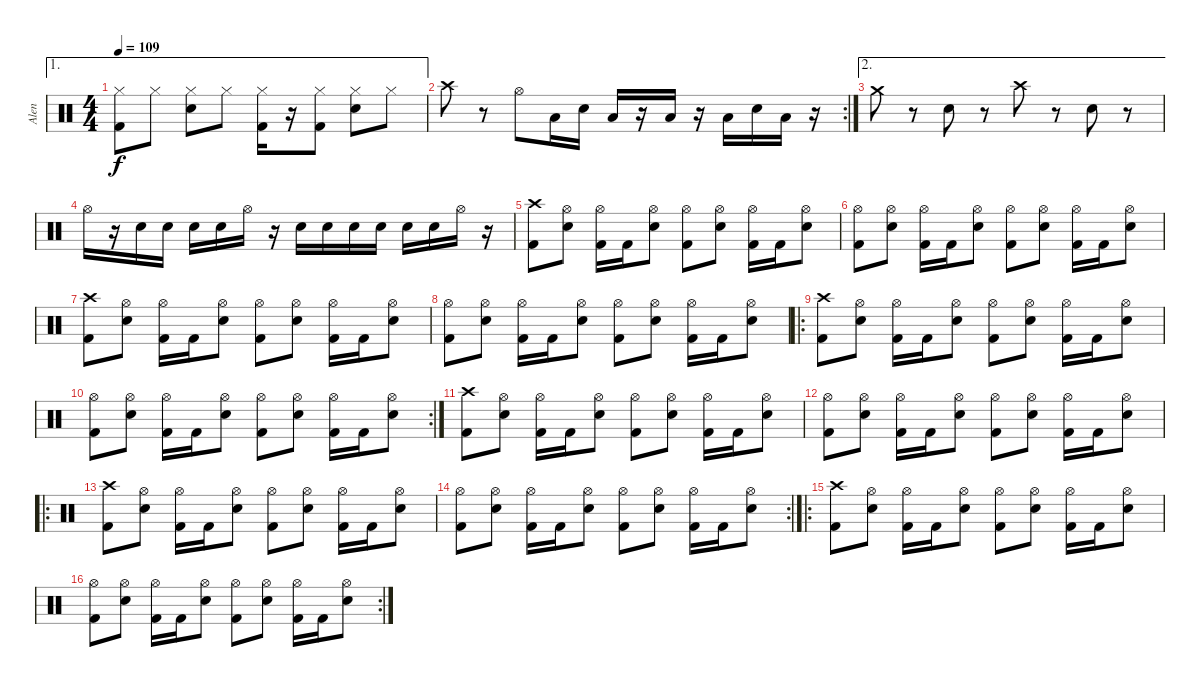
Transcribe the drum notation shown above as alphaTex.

\track ("Alen" "Alen") {instrument percussion}
\staff {score}
\articulation defaults
\ae 1
\ts (4 4)
\tempo 109
\clef neutral
\ks c
("Hi-Hat (closed)" "Kick (hit) 2").8{dy f} "Hi-Hat (closed)".8 ("Hi-Hat (closed)" "Electric Snare (hit)").8 "Hi-Hat (closed)".8 ("Hi-Hat (closed)" "Kick (hit) 2").16 r.16 ("Hi-Hat (closed)" "Kick (hit) 2").8 ("Hi-Hat (closed)" "Electric Snare (hit)").8 "Hi-Hat (closed)".8 |
\rc 2 "Crash high (hit)".8
r.8 "Hi-Hat (open)".8 "Low Floor Tom (hit)".16 "Electric Snare (hit)".16 "Low Floor Tom (hit)".16 r.16 "Low Floor Tom (hit)".16 r.16 "Low Floor Tom (hit)".16 "Electric Snare (hit)".16 "Low Floor Tom (hit)".16 r.16 |
\ae 2 "Crash medium (hit)".8
r.8 "Electric Snare (hit)".8 r.8 "Crash high (hit)".8 r.8 "Electric Snare (hit)".8 r.8 |
"Hi-Hat (open)".16 r.16 "Electric Snare (hit)".16 "Electric Snare (hit)".16 "Electric Snare (hit)".16 "Electric Snare (hit)".16 "Hi-Hat (open)".16 r.16 "Electric Snare (hit)".16 "Electric Snare (hit)".16 "Electric Snare (hit)".16 "Electric Snare (hit)".16 "Electric Snare (hit)".16 "Electric Snare (hit)".16 "Hi-Hat (open)".16 r.16 |
("Crash high (hit)" "Kick (hit) 2").8 ("Hi-Hat (open)" "Electric Snare (hit)").8 ("Hi-Hat (open)" "Kick (hit) 2").16 "Kick (hit) 2".16 ("Hi-Hat (open)" "Electric Snare (hit)").8 ("Hi-Hat (open)" "Kick (hit) 2").8 ("Hi-Hat (open)" "Electric Snare (hit)").8 ("Hi-Hat (open)" "Kick (hit) 2").16 "Kick (hit) 2".16 ("Hi-Hat (open)" "Electric Snare (hit)").8 |
("Hi-Hat (open)" "Kick (hit) 2").8 ("Hi-Hat (open)" "Electric Snare (hit)").8 ("Hi-Hat (open)" "Kick (hit) 2").16 "Kick (hit) 2".16 ("Hi-Hat (open)" "Electric Snare (hit)").8 ("Hi-Hat (open)" "Kick (hit) 2").8 ("Hi-Hat (open)" "Electric Snare (hit)").8 ("Hi-Hat (open)" "Kick (hit) 2").16 "Kick (hit) 2".16 ("Hi-Hat (open)" "Electric Snare (hit)").8 |
("Crash high (hit)" "Kick (hit) 2").8 ("Hi-Hat (open)" "Electric Snare (hit)").8 ("Hi-Hat (open)" "Kick (hit) 2").16 "Kick (hit) 2".16 ("Hi-Hat (open)" "Electric Snare (hit)").8 ("Hi-Hat (open)" "Kick (hit) 2").8 ("Hi-Hat (open)" "Electric Snare (hit)").8 ("Hi-Hat (open)" "Kick (hit) 2").16 "Kick (hit) 2".16 ("Hi-Hat (open)" "Electric Snare (hit)").8 |
("Hi-Hat (open)" "Kick (hit) 2").8 ("Hi-Hat (open)" "Electric Snare (hit)").8 ("Hi-Hat (open)" "Kick (hit) 2").16 "Kick (hit) 2".16 ("Hi-Hat (open)" "Electric Snare (hit)").8 ("Hi-Hat (open)" "Kick (hit) 2").8 ("Hi-Hat (open)" "Electric Snare (hit)").8 ("Hi-Hat (open)" "Kick (hit) 2").16 "Kick (hit) 2".16 ("Hi-Hat (open)" "Electric Snare (hit)").8 |
\ro
("Crash high (hit)" "Kick (hit) 2").8 ("Hi-Hat (open)" "Electric Snare (hit)").8 ("Hi-Hat (open)" "Kick (hit) 2").16 "Kick (hit) 2".16 ("Hi-Hat (open)" "Electric Snare (hit)").8 ("Hi-Hat (open)" "Kick (hit) 2").8 ("Hi-Hat (open)" "Electric Snare (hit)").8 ("Hi-Hat (open)" "Kick (hit) 2").16 "Kick (hit) 2".16 ("Hi-Hat (open)" "Electric Snare (hit)").8 |
\rc 2
("Hi-Hat (open)" "Kick (hit) 2").8 ("Hi-Hat (open)" "Electric Snare (hit)").8 ("Hi-Hat (open)" "Kick (hit) 2").16 "Kick (hit) 2".16 ("Hi-Hat (open)" "Electric Snare (hit)").8 ("Hi-Hat (open)" "Kick (hit) 2").8 ("Hi-Hat (open)" "Electric Snare (hit)").8 ("Hi-Hat (open)" "Kick (hit) 2").16 "Kick (hit) 2".16 ("Hi-Hat (open)" "Electric Snare (hit)").8 |
("Crash high (hit)" "Kick (hit) 2").8 ("Hi-Hat (open)" "Electric Snare (hit)").8 ("Hi-Hat (open)" "Kick (hit) 2").16 "Kick (hit) 2".16 ("Hi-Hat (open)" "Electric Snare (hit)").8 ("Hi-Hat (open)" "Kick (hit) 2").8 ("Hi-Hat (open)" "Electric Snare (hit)").8 ("Hi-Hat (open)" "Kick (hit) 2").16 "Kick (hit) 2".16 ("Hi-Hat (open)" "Electric Snare (hit)").8 |
("Hi-Hat (open)" "Kick (hit) 2").8 ("Hi-Hat (open)" "Electric Snare (hit)").8 ("Hi-Hat (open)" "Kick (hit) 2").16 "Kick (hit) 2".16 ("Hi-Hat (open)" "Electric Snare (hit)").8 ("Hi-Hat (open)" "Kick (hit) 2").8 ("Hi-Hat (open)" "Electric Snare (hit)").8 ("Hi-Hat (open)" "Kick (hit) 2").16 "Kick (hit) 2".16 ("Hi-Hat (open)" "Electric Snare (hit)").8 |
\ro
("Crash high (hit)" "Kick (hit) 2").8 ("Hi-Hat (open)" "Electric Snare (hit)").8 ("Hi-Hat (open)" "Kick (hit) 2").16 "Kick (hit) 2".16 ("Hi-Hat (open)" "Electric Snare (hit)").8 ("Hi-Hat (open)" "Kick (hit) 2").8 ("Hi-Hat (open)" "Electric Snare (hit)").8 ("Hi-Hat (open)" "Kick (hit) 2").16 "Kick (hit) 2".16 ("Hi-Hat (open)" "Electric Snare (hit)").8 |
\rc 2
("Hi-Hat (open)" "Kick (hit) 2").8 ("Hi-Hat (open)" "Electric Snare (hit)").8 ("Hi-Hat (open)" "Kick (hit) 2").16 "Kick (hit) 2".16 ("Hi-Hat (open)" "Electric Snare (hit)").8 ("Hi-Hat (open)" "Kick (hit) 2").8 ("Hi-Hat (open)" "Electric Snare (hit)").8 ("Hi-Hat (open)" "Kick (hit) 2").16 "Kick (hit) 2".16 ("Hi-Hat (open)" "Electric Snare (hit)").8 |
\ro
("Crash high (hit)" "Kick (hit) 2").8 ("Hi-Hat (open)" "Electric Snare (hit)").8 ("Hi-Hat (open)" "Kick (hit) 2").16 "Kick (hit) 2".16 ("Hi-Hat (open)" "Electric Snare (hit)").8 ("Hi-Hat (open)" "Kick (hit) 2").8 ("Hi-Hat (open)" "Electric Snare (hit)").8 ("Hi-Hat (open)" "Kick (hit) 2").16 "Kick (hit) 2".16 ("Hi-Hat (open)" "Electric Snare (hit)").8 |
\rc 2
("Hi-Hat (open)" "Kick (hit) 2").8 ("Hi-Hat (open)" "Electric Snare (hit)").8 ("Hi-Hat (open)" "Kick (hit) 2").16 "Kick (hit) 2".16 ("Hi-Hat (open)" "Electric Snare (hit)").8 ("Hi-Hat (open)" "Kick (hit) 2").8 ("Hi-Hat (open)" "Electric Snare (hit)").8 ("Hi-Hat (open)" "Kick (hit) 2").16 "Kick (hit) 2".16 ("Hi-Hat (open)" "Electric Snare (hit)").8
